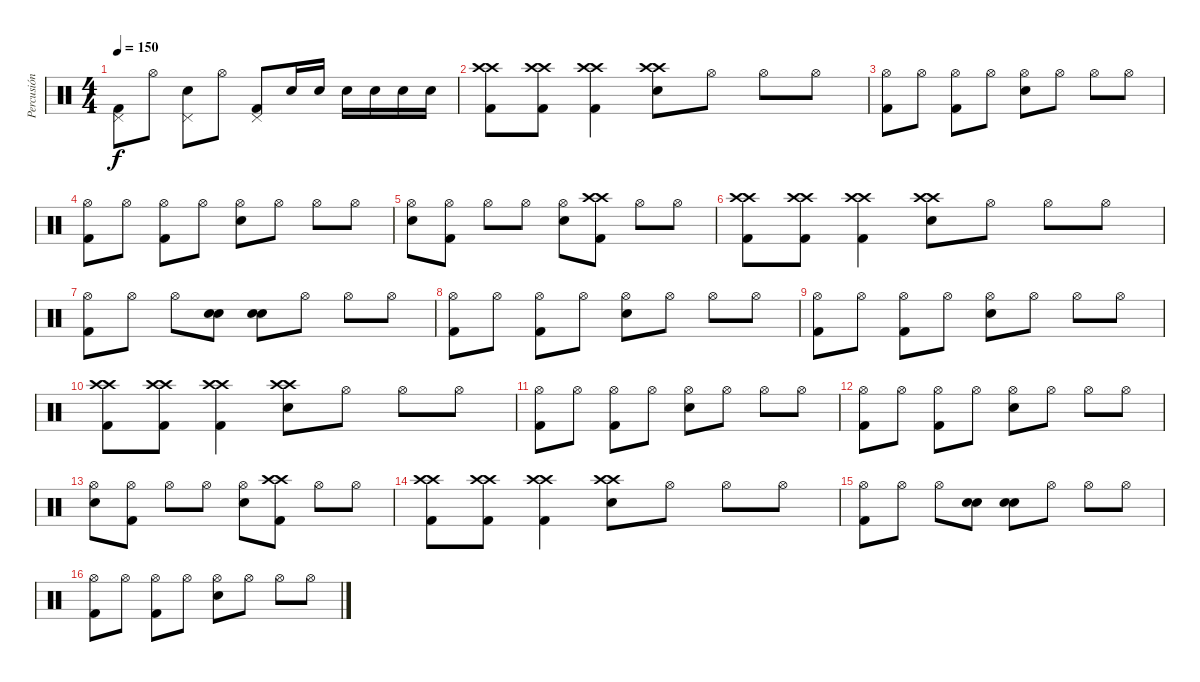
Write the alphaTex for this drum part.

\track ("Percusión" "Percusión") {instrument percussion}
\staff {score}
\articulation defaults
\ts (4 4)
\tempo 150
\clef neutral
\ks c
("Pedal Hi-Hat (hit)" "Kick (hit) 2").8{dy f} "Hi-Hat (open)".8 ("Pedal Hi-Hat (hit)" "Electric Snare (hit)").8 "Hi-Hat (open)".8 ("Pedal Hi-Hat (hit)" "Kick (hit) 2").8 "Electric Snare (hit)".16 "Electric Snare (hit)".16 "Electric Snare (hit)".16 "Electric Snare (hit)".16 "Electric Snare (hit)".16 "Electric Snare (hit)".16 |
("Crash high (hit)" "Crash high (hit)" "Kick (hit) 2").8 ("Crash high (hit)" "Crash high (hit)" "Kick (hit) 2").8 ("Crash high (hit)" "Crash high (hit)" "Kick (hit) 2").4 ("Crash high (hit)" "Crash high (hit)" "Electric Snare (hit)").8 "Hi-Hat (open)".8 "Hi-Hat (open)".8 "Hi-Hat (open)".8 |
("Hi-Hat (open)" "Kick (hit) 2").8 "Hi-Hat (open)".8 ("Hi-Hat (open)" "Kick (hit) 2").8 "Hi-Hat (open)".8 ("Hi-Hat (open)" "Electric Snare (hit)").8 "Hi-Hat (open)".8 "Hi-Hat (open)".8 "Hi-Hat (open)".8 |
("Hi-Hat (open)" "Kick (hit) 2").8 "Hi-Hat (open)".8 ("Hi-Hat (open)" "Kick (hit) 2").8 "Hi-Hat (open)".8 ("Hi-Hat (open)" "Electric Snare (hit)").8 "Hi-Hat (open)".8 "Hi-Hat (open)".8 "Hi-Hat (open)".8 |
("Hi-Hat (open)" "Electric Snare (hit)").8 ("Hi-Hat (open)" "Kick (hit) 2").8 "Hi-Hat (open)".8 "Hi-Hat (open)".8 ("Hi-Hat (open)" "Electric Snare (hit)").8 ("Crash high (hit)" "Crash high (hit)" "Kick (hit) 2").8 "Hi-Hat (open)".8 "Hi-Hat (open)".8 |
("Crash high (hit)" "Crash high (hit)" "Kick (hit) 2").8 ("Crash high (hit)" "Crash high (hit)" "Kick (hit) 2").8 ("Crash high (hit)" "Crash high (hit)" "Kick (hit) 2").4 ("Crash high (hit)" "Crash high (hit)" "Electric Snare (hit)").8 "Hi-Hat (open)".8 "Hi-Hat (open)".8 "Hi-Hat (open)".8 |
("Hi-Hat (open)" "Kick (hit) 2").8 "Hi-Hat (open)".8 "Hi-Hat (open)".8 ("Electric Snare (hit)" "Electric Snare (hit)").8 ("Electric Snare (hit)" "Electric Snare (hit)").8 "Hi-Hat (open)".8 "Hi-Hat (open)".8 "Hi-Hat (open)".8 |
("Hi-Hat (open)" "Kick (hit) 2").8 "Hi-Hat (open)".8 ("Hi-Hat (open)" "Kick (hit) 2").8 "Hi-Hat (open)".8 ("Hi-Hat (open)" "Electric Snare (hit)").8 "Hi-Hat (open)".8 "Hi-Hat (open)".8 "Hi-Hat (open)".8 |
("Hi-Hat (open)" "Kick (hit) 2").8 "Hi-Hat (open)".8 ("Hi-Hat (open)" "Kick (hit) 2").8 "Hi-Hat (open)".8 ("Hi-Hat (open)" "Electric Snare (hit)").8 "Hi-Hat (open)".8 "Hi-Hat (open)".8 "Hi-Hat (open)".8 |
("Crash high (hit)" "Crash high (hit)" "Kick (hit) 2").8 ("Crash high (hit)" "Crash high (hit)" "Kick (hit) 2").8 ("Crash high (hit)" "Crash high (hit)" "Kick (hit) 2").4 ("Crash high (hit)" "Crash high (hit)" "Electric Snare (hit)").8 "Hi-Hat (open)".8 "Hi-Hat (open)".8 "Hi-Hat (open)".8 |
("Hi-Hat (open)" "Kick (hit) 2").8 "Hi-Hat (open)".8 ("Hi-Hat (open)" "Kick (hit) 2").8 "Hi-Hat (open)".8 ("Hi-Hat (open)" "Electric Snare (hit)").8 "Hi-Hat (open)".8 "Hi-Hat (open)".8 "Hi-Hat (open)".8 |
("Hi-Hat (open)" "Kick (hit) 2").8 "Hi-Hat (open)".8 ("Hi-Hat (open)" "Kick (hit) 2").8 "Hi-Hat (open)".8 ("Hi-Hat (open)" "Electric Snare (hit)").8 "Hi-Hat (open)".8 "Hi-Hat (open)".8 "Hi-Hat (open)".8 |
("Hi-Hat (open)" "Electric Snare (hit)").8 ("Hi-Hat (open)" "Kick (hit) 2").8 "Hi-Hat (open)".8 "Hi-Hat (open)".8 ("Hi-Hat (open)" "Electric Snare (hit)").8 ("Crash high (hit)" "Crash high (hit)" "Kick (hit) 2").8 "Hi-Hat (open)".8 "Hi-Hat (open)".8 |
("Crash high (hit)" "Crash high (hit)" "Kick (hit) 2").8 ("Crash high (hit)" "Crash high (hit)" "Kick (hit) 2").8 ("Crash high (hit)" "Crash high (hit)" "Kick (hit) 2").4 ("Crash high (hit)" "Crash high (hit)" "Electric Snare (hit)").8 "Hi-Hat (open)".8 "Hi-Hat (open)".8 "Hi-Hat (open)".8 |
("Hi-Hat (open)" "Kick (hit) 2").8 "Hi-Hat (open)".8 "Hi-Hat (open)".8 ("Electric Snare (hit)" "Electric Snare (hit)").8 ("Electric Snare (hit)" "Electric Snare (hit)").8 "Hi-Hat (open)".8 "Hi-Hat (open)".8 "Hi-Hat (open)".8 |
("Hi-Hat (open)" "Kick (hit) 2").8 "Hi-Hat (open)".8 ("Hi-Hat (open)" "Kick (hit) 2").8 "Hi-Hat (open)".8 ("Hi-Hat (open)" "Electric Snare (hit)").8 "Hi-Hat (open)".8 "Hi-Hat (open)".8 "Hi-Hat (open)".8
